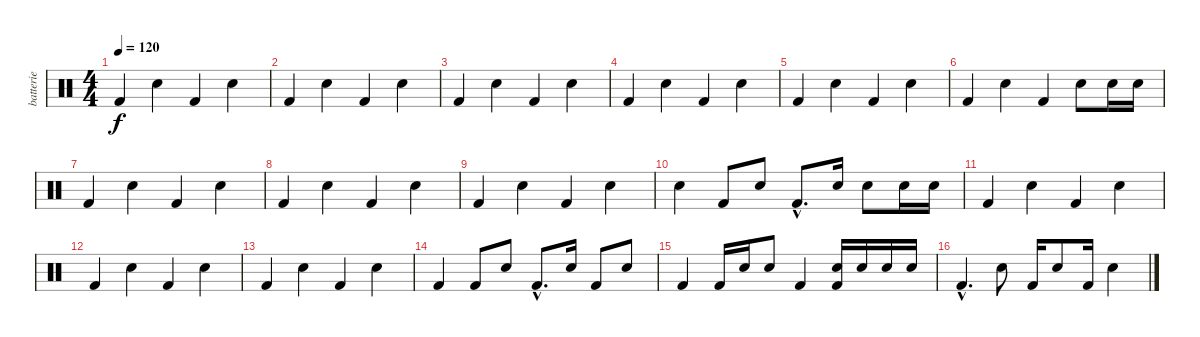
\track ("batterie" "batterie") {instrument percussion}
\staff {score}
\articulation defaults
\ts (4 4)
\tempo 120
\clef neutral
\ks c "Kick (hit) 2".4{dy f} "Electric Snare (hit)".4 "Kick (hit) 2".4 "Electric Snare (hit)".4
|
"Kick (hit) 2".4 "Electric Snare (hit)".4 "Kick (hit) 2".4 "Electric Snare (hit)".4 |
"Kick (hit) 2".4 "Electric Snare (hit)".4 "Kick (hit) 2".4 "Electric Snare (hit)".4 |
"Kick (hit) 2".4 "Electric Snare (hit)".4 "Kick (hit) 2".4 "Electric Snare (hit)".4 |
"Kick (hit) 2".4 "Electric Snare (hit)".4 "Kick (hit) 2".4 "Electric Snare (hit)".4 |
"Kick (hit) 2".4 "Electric Snare (hit)".4 "Kick (hit) 2".4 "Electric Snare (hit)".8 "Electric Snare (hit)".16 "Electric Snare (hit)".16 |
"Kick (hit) 2".4 "Electric Snare (hit)".4 "Kick (hit) 2".4 "Electric Snare (hit)".4 |
"Kick (hit) 2".4 "Electric Snare (hit)".4 "Kick (hit) 2".4 "Electric Snare (hit)".4 |
"Kick (hit) 2".4 "Electric Snare (hit)".4 "Kick (hit) 2".4 "Electric Snare (hit)".4 |
"Electric Snare (hit)".4 "Kick (hit) 2".8 "Electric Snare (hit)".8 "Kick (hit) 2"{hac}.8{d} "Electric Snare (hit)".16 "Electric Snare (hit)".8 "Electric Snare (hit)".16 "Electric Snare (hit)".16 |
"Kick (hit) 2".4 "Electric Snare (hit)".4 "Kick (hit) 2".4 "Electric Snare (hit)".4 |
"Kick (hit) 2".4 "Electric Snare (hit)".4 "Kick (hit) 2".4 "Electric Snare (hit)".4 |
"Kick (hit) 2".4 "Electric Snare (hit)".4 "Kick (hit) 2".4 "Electric Snare (hit)".4 |
"Kick (hit) 2".4 "Kick (hit) 2".8 "Electric Snare (hit)".8 "Kick (hit) 2"{hac}.8{d} "Electric Snare (hit)".16 "Kick (hit) 2".8 "Electric Snare (hit)".8 |
"Kick (hit) 2".4 "Kick (hit) 2".16 "Electric Snare (hit)".16 "Electric Snare (hit)".8 "Kick (hit) 2".4 ("Electric Snare (hit)" "Kick (hit) 2").16 "Electric Snare (hit)".16 "Electric Snare (hit)".16 "Electric Snare (hit)".16 |
"Kick (hit) 2"{hac}.4{d} "Electric Snare (hit)".8 "Kick (hit) 2".16 "Electric Snare (hit)".8 "Kick (hit) 2".16 "Electric Snare (hit)".4
